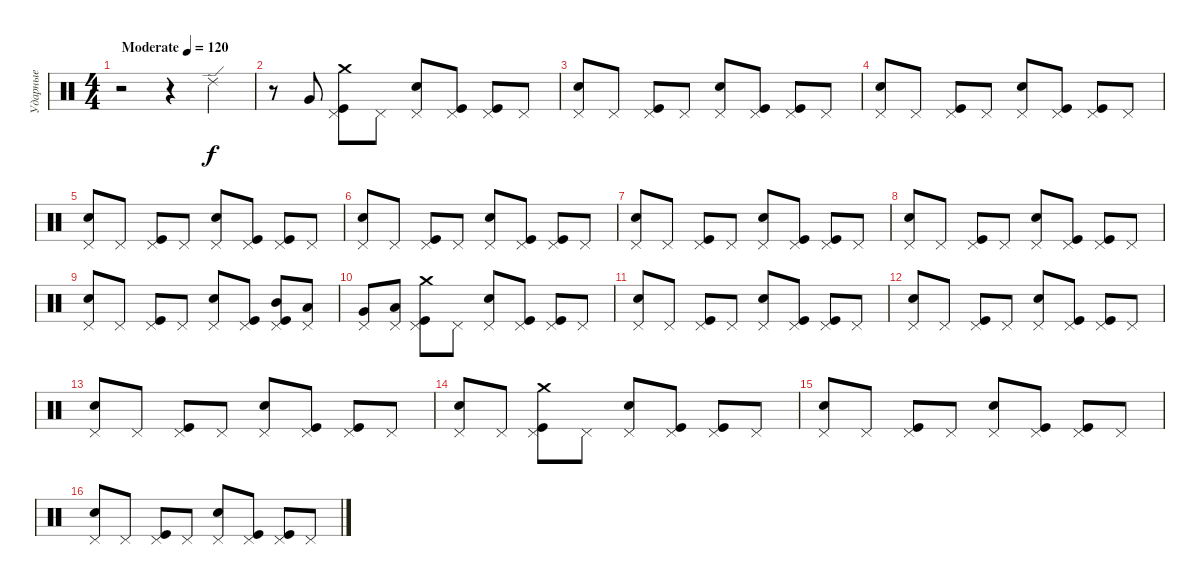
\track ("Ударные" "Ударные") {instrument percussion}
\staff {score}
\articulation defaults
\ts (4 4)
\tempo (120 "Moderate")
\clef neutral
\ks c
r.2{dy f} r.4 "Ride (edge) 2".4 |
r.8 "Very Low Tom (hit)".8 ("Kick (hit)" "Pedal Hi-Hat (hit)" "Crash medium (hit)").8 "Pedal Hi-Hat (hit)".8 ("Electric Snare (hit)" "Pedal Hi-Hat (hit)").8 ("Kick (hit)" "Pedal Hi-Hat (hit)").8 ("Kick (hit)" "Pedal Hi-Hat (hit)").8 "Pedal Hi-Hat (hit)".8 |
("Electric Snare (hit)" "Pedal Hi-Hat (hit)").8 "Pedal Hi-Hat (hit)".8 ("Kick (hit)" "Pedal Hi-Hat (hit)").8 "Pedal Hi-Hat (hit)".8 ("Electric Snare (hit)" "Pedal Hi-Hat (hit)").8 ("Kick (hit)" "Pedal Hi-Hat (hit)").8 ("Kick (hit)" "Pedal Hi-Hat (hit)").8 "Pedal Hi-Hat (hit)".8 |
("Electric Snare (hit)" "Pedal Hi-Hat (hit)").8 "Pedal Hi-Hat (hit)".8 ("Kick (hit)" "Pedal Hi-Hat (hit)").8 "Pedal Hi-Hat (hit)".8 ("Electric Snare (hit)" "Pedal Hi-Hat (hit)").8 ("Kick (hit)" "Pedal Hi-Hat (hit)").8 ("Kick (hit)" "Pedal Hi-Hat (hit)").8 "Pedal Hi-Hat (hit)".8 |
("Electric Snare (hit)" "Pedal Hi-Hat (hit)").8 "Pedal Hi-Hat (hit)".8 ("Kick (hit)" "Pedal Hi-Hat (hit)").8 "Pedal Hi-Hat (hit)".8 ("Electric Snare (hit)" "Pedal Hi-Hat (hit)").8 ("Kick (hit)" "Pedal Hi-Hat (hit)").8 ("Kick (hit)" "Pedal Hi-Hat (hit)").8 "Pedal Hi-Hat (hit)".8 |
("Electric Snare (hit)" "Pedal Hi-Hat (hit)").8 "Pedal Hi-Hat (hit)".8 ("Kick (hit)" "Pedal Hi-Hat (hit)").8 "Pedal Hi-Hat (hit)".8 ("Electric Snare (hit)" "Pedal Hi-Hat (hit)").8 ("Kick (hit)" "Pedal Hi-Hat (hit)").8 ("Kick (hit)" "Pedal Hi-Hat (hit)").8 "Pedal Hi-Hat (hit)".8 |
("Electric Snare (hit)" "Pedal Hi-Hat (hit)").8 "Pedal Hi-Hat (hit)".8 ("Kick (hit)" "Pedal Hi-Hat (hit)").8 "Pedal Hi-Hat (hit)".8 ("Electric Snare (hit)" "Pedal Hi-Hat (hit)").8 ("Kick (hit)" "Pedal Hi-Hat (hit)").8 ("Kick (hit)" "Pedal Hi-Hat (hit)").8 "Pedal Hi-Hat (hit)".8 |
("Electric Snare (hit)" "Pedal Hi-Hat (hit)").8 "Pedal Hi-Hat (hit)".8 ("Kick (hit)" "Pedal Hi-Hat (hit)").8 "Pedal Hi-Hat (hit)".8 ("Electric Snare (hit)" "Pedal Hi-Hat (hit)").8 ("Kick (hit)" "Pedal Hi-Hat (hit)").8 ("Kick (hit)" "Pedal Hi-Hat (hit)").8 "Pedal Hi-Hat (hit)".8 |
("Electric Snare (hit)" "Pedal Hi-Hat (hit)").8 "Pedal Hi-Hat (hit)".8 ("Kick (hit)" "Pedal Hi-Hat (hit)").8 "Pedal Hi-Hat (hit)".8 ("Electric Snare (hit)" "Pedal Hi-Hat (hit)").8 ("Kick (hit)" "Pedal Hi-Hat (hit)").8 ("Kick (hit)" "Pedal Hi-Hat (hit)" "Mid Tom (hit)").8 ("Pedal Hi-Hat (hit)" "Low Tom (hit)").8 |
("Pedal Hi-Hat (hit)" "Very Low Tom (hit)").8 ("Pedal Hi-Hat (hit)" "Low Floor Tom (hit)").8 ("Kick (hit)" "Pedal Hi-Hat (hit)" "Crash medium (hit)").8 "Pedal Hi-Hat (hit)".8 ("Electric Snare (hit)" "Pedal Hi-Hat (hit)").8 ("Kick (hit)" "Pedal Hi-Hat (hit)").8 ("Kick (hit)" "Pedal Hi-Hat (hit)").8 "Pedal Hi-Hat (hit)".8 |
("Electric Snare (hit)" "Pedal Hi-Hat (hit)").8 "Pedal Hi-Hat (hit)".8 ("Kick (hit)" "Pedal Hi-Hat (hit)").8 "Pedal Hi-Hat (hit)".8 ("Electric Snare (hit)" "Pedal Hi-Hat (hit)").8 ("Kick (hit)" "Pedal Hi-Hat (hit)").8 ("Kick (hit)" "Pedal Hi-Hat (hit)").8 "Pedal Hi-Hat (hit)".8 |
("Electric Snare (hit)" "Pedal Hi-Hat (hit)").8 "Pedal Hi-Hat (hit)".8 ("Kick (hit)" "Pedal Hi-Hat (hit)").8 "Pedal Hi-Hat (hit)".8 ("Electric Snare (hit)" "Pedal Hi-Hat (hit)").8 ("Kick (hit)" "Pedal Hi-Hat (hit)").8 ("Kick (hit)" "Pedal Hi-Hat (hit)").8 "Pedal Hi-Hat (hit)".8 |
("Electric Snare (hit)" "Pedal Hi-Hat (hit)").8 "Pedal Hi-Hat (hit)".8 ("Kick (hit)" "Pedal Hi-Hat (hit)").8 "Pedal Hi-Hat (hit)".8 ("Electric Snare (hit)" "Pedal Hi-Hat (hit)").8 ("Kick (hit)" "Pedal Hi-Hat (hit)").8 ("Kick (hit)" "Pedal Hi-Hat (hit)").8 "Pedal Hi-Hat (hit)".8 |
("Electric Snare (hit)" "Pedal Hi-Hat (hit)").8 "Pedal Hi-Hat (hit)".8 ("Kick (hit)" "Pedal Hi-Hat (hit)" "Crash medium (hit)").8 "Pedal Hi-Hat (hit)".8 ("Electric Snare (hit)" "Pedal Hi-Hat (hit)").8 ("Kick (hit)" "Pedal Hi-Hat (hit)").8 ("Kick (hit)" "Pedal Hi-Hat (hit)").8 "Pedal Hi-Hat (hit)".8 |
("Electric Snare (hit)" "Pedal Hi-Hat (hit)").8 "Pedal Hi-Hat (hit)".8 ("Kick (hit)" "Pedal Hi-Hat (hit)").8 "Pedal Hi-Hat (hit)".8 ("Electric Snare (hit)" "Pedal Hi-Hat (hit)").8 ("Kick (hit)" "Pedal Hi-Hat (hit)").8 ("Kick (hit)" "Pedal Hi-Hat (hit)").8 "Pedal Hi-Hat (hit)".8 |
("Electric Snare (hit)" "Pedal Hi-Hat (hit)").8 "Pedal Hi-Hat (hit)".8 ("Kick (hit)" "Pedal Hi-Hat (hit)").8 "Pedal Hi-Hat (hit)".8 ("Electric Snare (hit)" "Pedal Hi-Hat (hit)").8 ("Kick (hit)" "Pedal Hi-Hat (hit)").8 ("Kick (hit)" "Pedal Hi-Hat (hit)").8 "Pedal Hi-Hat (hit)".8
